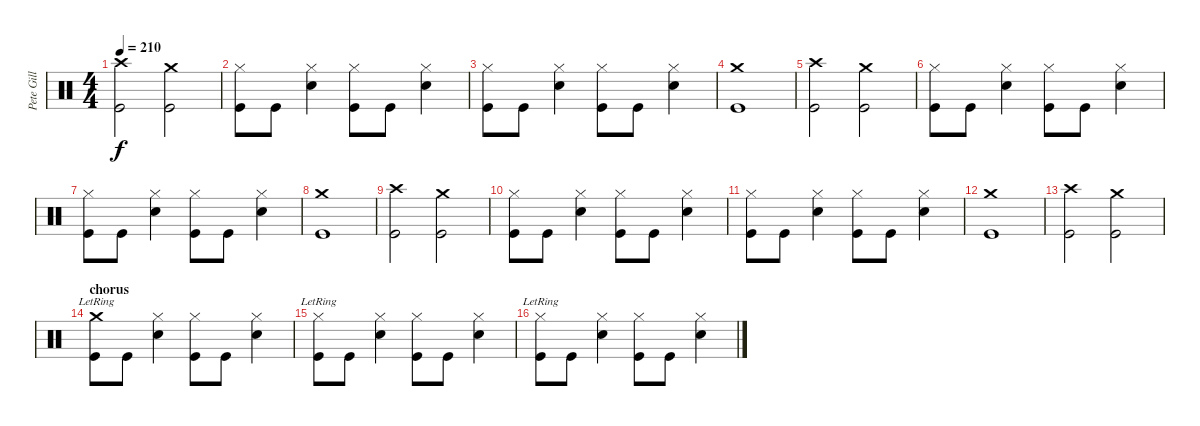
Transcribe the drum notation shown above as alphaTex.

\track ("Pete Gill" "Pete Gill") {instrument percussion}
\staff {score}
\articulation defaults
\ts (4 4)
\tempo 210
\clef neutral
\ks c
("Crash high (hit)" "Kick (hit)").2{dy f} ("Crash medium (hit)" "Kick (hit)").2 |
("Hi-Hat (closed)" "Kick (hit)").8 "Kick (hit)".8 ("Hi-Hat (closed)" "Snare (hit) 2").4 ("Hi-Hat (closed)" "Kick (hit)").8 "Kick (hit)".8 ("Hi-Hat (closed)" "Snare (hit) 2").4 |
("Hi-Hat (closed)" "Kick (hit)").8 "Kick (hit)".8 ("Hi-Hat (closed)" "Snare (hit) 2").4 ("Hi-Hat (closed)" "Kick (hit)").8 "Kick (hit)".8 ("Hi-Hat (closed)" "Snare (hit) 2").4 |
("Crash medium (hit)" "Kick (hit)").1 |
("Crash high (hit)" "Kick (hit)").2 ("Crash medium (hit)" "Kick (hit)").2 |
("Hi-Hat (closed)" "Kick (hit)").8 "Kick (hit)".8 ("Hi-Hat (closed)" "Snare (hit) 2").4 ("Hi-Hat (closed)" "Kick (hit)").8 "Kick (hit)".8 ("Hi-Hat (closed)" "Snare (hit) 2").4 |
("Hi-Hat (closed)" "Kick (hit)").8 "Kick (hit)".8 ("Hi-Hat (closed)" "Snare (hit) 2").4 ("Hi-Hat (closed)" "Kick (hit)").8 "Kick (hit)".8 ("Hi-Hat (closed)" "Snare (hit) 2").4 |
("Crash medium (hit)" "Kick (hit)").1 |
("Crash high (hit)" "Kick (hit)").2 ("Crash medium (hit)" "Kick (hit)").2 |
("Hi-Hat (closed)" "Kick (hit)").8 "Kick (hit)".8 ("Hi-Hat (closed)" "Snare (hit) 2").4 ("Hi-Hat (closed)" "Kick (hit)").8 "Kick (hit)".8 ("Hi-Hat (closed)" "Snare (hit) 2").4 |
("Hi-Hat (closed)" "Kick (hit)").8 "Kick (hit)".8 ("Hi-Hat (closed)" "Snare (hit) 2").4 ("Hi-Hat (closed)" "Kick (hit)").8 "Kick (hit)".8 ("Hi-Hat (closed)" "Snare (hit) 2").4 |
("Crash medium (hit)" "Kick (hit)").1 |
("Crash high (hit)" "Kick (hit)").2 ("Crash medium (hit)" "Kick (hit)").2 |
\section ("" "chorus")
("Crash medium (hit)"{lr} "Kick (hit)").8 "Kick (hit)".8 ("Hi-Hat (closed)" "Snare (hit) 2").4 ("Hi-Hat (closed)" "Kick (hit)").8 "Kick (hit)".8 ("Hi-Hat (closed)" "Snare (hit) 2").4 |
("Hi-Hat (closed)"{lr} "Kick (hit)").8 "Kick (hit)".8 ("Hi-Hat (closed)" "Snare (hit) 2").4 ("Hi-Hat (closed)" "Kick (hit)").8 "Kick (hit)".8 ("Hi-Hat (closed)" "Snare (hit) 2").4 |
("Hi-Hat (closed)"{lr} "Kick (hit)").8 "Kick (hit)".8 ("Hi-Hat (closed)" "Snare (hit) 2").4 ("Hi-Hat (closed)" "Kick (hit)").8 "Kick (hit)".8 ("Hi-Hat (closed)" "Snare (hit) 2").4
